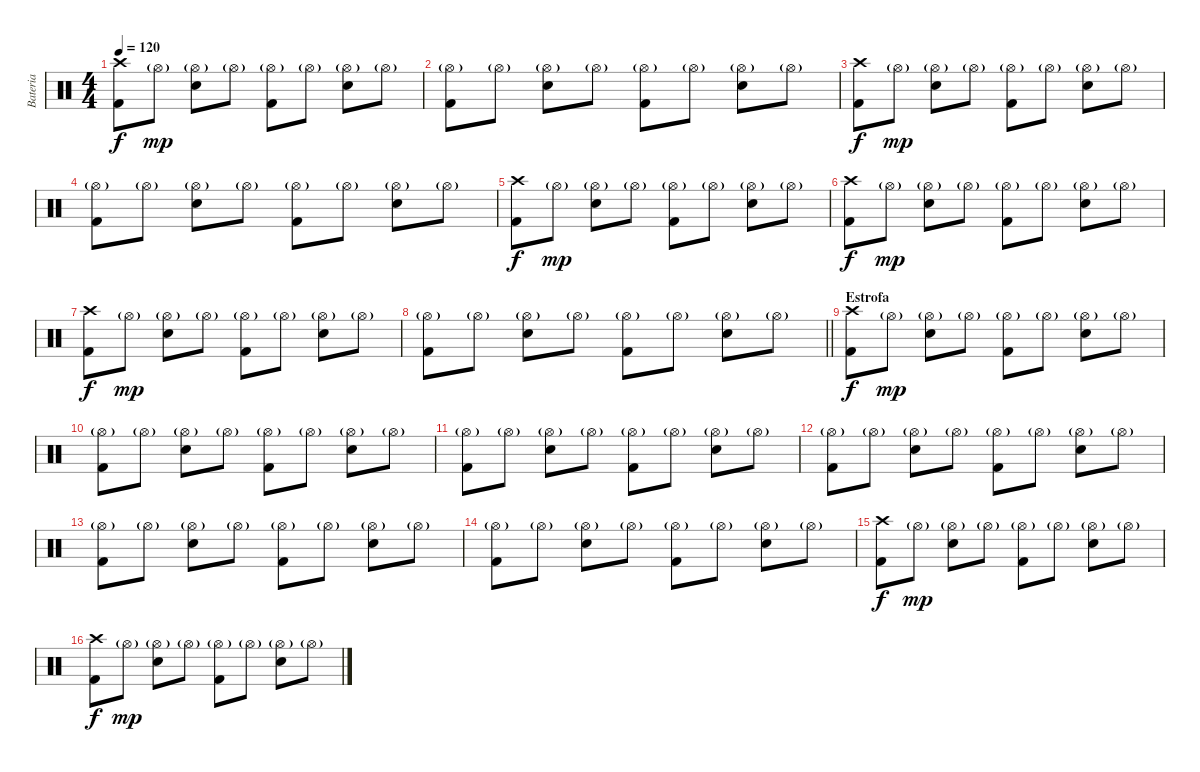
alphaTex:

\track ("Bateria" "Bateria") {instrument percussion}
\staff {score}
\articulation defaults
\ts (4 4)
\tempo 120
\clef neutral
\ks c
("Crash high (hit)" "Kick (hit) 2").8{dy f} "Hi-Hat (open)"{g}.8{dy mp} ("Hi-Hat (open)"{g} "Snare (hit) 2").8 "Hi-Hat (open)"{g}.8 ("Hi-Hat (open)"{g} "Kick (hit) 2").8 "Hi-Hat (open)"{g}.8 ("Hi-Hat (open)"{g} "Snare (hit) 2").8 "Hi-Hat (open)"{g}.8 |
("Hi-Hat (open)"{g} "Kick (hit) 2").8 "Hi-Hat (open)"{g}.8 ("Hi-Hat (open)"{g} "Snare (hit) 2").8 "Hi-Hat (open)"{g}.8 ("Hi-Hat (open)"{g} "Kick (hit) 2").8 "Hi-Hat (open)"{g}.8 ("Hi-Hat (open)"{g} "Snare (hit) 2").8 "Hi-Hat (open)"{g}.8 |
("Crash high (hit)" "Kick (hit) 2").8{dy f} "Hi-Hat (open)"{g}.8{dy mp} ("Hi-Hat (open)"{g} "Snare (hit) 2").8 "Hi-Hat (open)"{g}.8 ("Hi-Hat (open)"{g} "Kick (hit) 2").8 "Hi-Hat (open)"{g}.8 ("Hi-Hat (open)"{g} "Snare (hit) 2").8 "Hi-Hat (open)"{g}.8 |
("Hi-Hat (open)"{g} "Kick (hit) 2").8 "Hi-Hat (open)"{g}.8 ("Hi-Hat (open)"{g} "Snare (hit) 2").8 "Hi-Hat (open)"{g}.8 ("Hi-Hat (open)"{g} "Kick (hit) 2").8 "Hi-Hat (open)"{g}.8 ("Hi-Hat (open)"{g} "Snare (hit) 2").8 "Hi-Hat (open)"{g}.8 |
("Crash high (hit)" "Kick (hit) 2").8{dy f} "Hi-Hat (open)"{g}.8{dy mp} ("Hi-Hat (open)"{g} "Snare (hit) 2").8 "Hi-Hat (open)"{g}.8 ("Hi-Hat (open)"{g} "Kick (hit) 2").8 "Hi-Hat (open)"{g}.8 ("Hi-Hat (open)"{g} "Snare (hit) 2").8 "Hi-Hat (open)"{g}.8 |
("Crash high (hit)" "Kick (hit) 2").8{dy f} "Hi-Hat (open)"{g}.8{dy mp} ("Hi-Hat (open)"{g} "Snare (hit) 2").8 "Hi-Hat (open)"{g}.8 ("Hi-Hat (open)"{g} "Kick (hit) 2").8 "Hi-Hat (open)"{g}.8 ("Hi-Hat (open)"{g} "Snare (hit) 2").8 "Hi-Hat (open)"{g}.8 |
("Crash high (hit)" "Kick (hit) 2").8{dy f} "Hi-Hat (open)"{g}.8{dy mp} ("Hi-Hat (open)"{g} "Snare (hit) 2").8 "Hi-Hat (open)"{g}.8 ("Hi-Hat (open)"{g} "Kick (hit) 2").8 "Hi-Hat (open)"{g}.8 ("Hi-Hat (open)"{g} "Snare (hit) 2").8 "Hi-Hat (open)"{g}.8 |
\barLineRight lightlight
("Hi-Hat (open)"{g} "Kick (hit) 2").8 "Hi-Hat (open)"{g}.8 ("Hi-Hat (open)"{g} "Snare (hit) 2").8 "Hi-Hat (open)"{g}.8 ("Hi-Hat (open)"{g} "Kick (hit) 2").8 "Hi-Hat (open)"{g}.8 ("Hi-Hat (open)"{g} "Snare (hit) 2").8 "Hi-Hat (open)"{g}.8 |
\section ("" "Estrofa")
("Crash high (hit)" "Kick (hit) 2").8{dy f} "Hi-Hat (open)"{g}.8{dy mp} ("Hi-Hat (open)"{g} "Snare (hit) 2").8 "Hi-Hat (open)"{g}.8 ("Hi-Hat (open)"{g} "Kick (hit) 2").8 "Hi-Hat (open)"{g}.8 ("Hi-Hat (open)"{g} "Snare (hit) 2").8 "Hi-Hat (open)"{g}.8 |
("Hi-Hat (open)"{g} "Kick (hit) 2").8 "Hi-Hat (open)"{g}.8 ("Hi-Hat (open)"{g} "Snare (hit) 2").8 "Hi-Hat (open)"{g}.8 ("Hi-Hat (open)"{g} "Kick (hit) 2").8 "Hi-Hat (open)"{g}.8 ("Hi-Hat (open)"{g} "Snare (hit) 2").8 "Hi-Hat (open)"{g}.8 |
("Hi-Hat (open)"{g} "Kick (hit) 2").8 "Hi-Hat (open)"{g}.8 ("Hi-Hat (open)"{g} "Snare (hit) 2").8 "Hi-Hat (open)"{g}.8 ("Hi-Hat (open)"{g} "Kick (hit) 2").8 "Hi-Hat (open)"{g}.8 ("Hi-Hat (open)"{g} "Snare (hit) 2").8 "Hi-Hat (open)"{g}.8 |
("Hi-Hat (open)"{g} "Kick (hit) 2").8 "Hi-Hat (open)"{g}.8 ("Hi-Hat (open)"{g} "Snare (hit) 2").8 "Hi-Hat (open)"{g}.8 ("Hi-Hat (open)"{g} "Kick (hit) 2").8 "Hi-Hat (open)"{g}.8 ("Hi-Hat (open)"{g} "Snare (hit) 2").8 "Hi-Hat (open)"{g}.8 |
("Hi-Hat (open)"{g} "Kick (hit) 2").8 "Hi-Hat (open)"{g}.8 ("Hi-Hat (open)"{g} "Snare (hit) 2").8 "Hi-Hat (open)"{g}.8 ("Hi-Hat (open)"{g} "Kick (hit) 2").8 "Hi-Hat (open)"{g}.8 ("Hi-Hat (open)"{g} "Snare (hit) 2").8 "Hi-Hat (open)"{g}.8 |
("Hi-Hat (open)"{g} "Kick (hit) 2").8 "Hi-Hat (open)"{g}.8 ("Hi-Hat (open)"{g} "Snare (hit) 2").8 "Hi-Hat (open)"{g}.8 ("Hi-Hat (open)"{g} "Kick (hit) 2").8 "Hi-Hat (open)"{g}.8 ("Hi-Hat (open)"{g} "Snare (hit) 2").8 "Hi-Hat (open)"{g}.8 |
("Crash high (hit)" "Kick (hit) 2").8{dy f} "Hi-Hat (open)"{g}.8{dy mp} ("Hi-Hat (open)"{g} "Snare (hit) 2").8 "Hi-Hat (open)"{g}.8 ("Hi-Hat (open)"{g} "Kick (hit) 2").8 "Hi-Hat (open)"{g}.8 ("Hi-Hat (open)"{g} "Snare (hit) 2").8 "Hi-Hat (open)"{g}.8 |
("Crash high (hit)" "Kick (hit) 2").8{dy f} "Hi-Hat (open)"{g}.8{dy mp} ("Hi-Hat (open)"{g} "Snare (hit) 2").8 "Hi-Hat (open)"{g}.8 ("Hi-Hat (open)"{g} "Kick (hit) 2").8 "Hi-Hat (open)"{g}.8 ("Hi-Hat (open)"{g} "Snare (hit) 2").8 "Hi-Hat (open)"{g}.8
